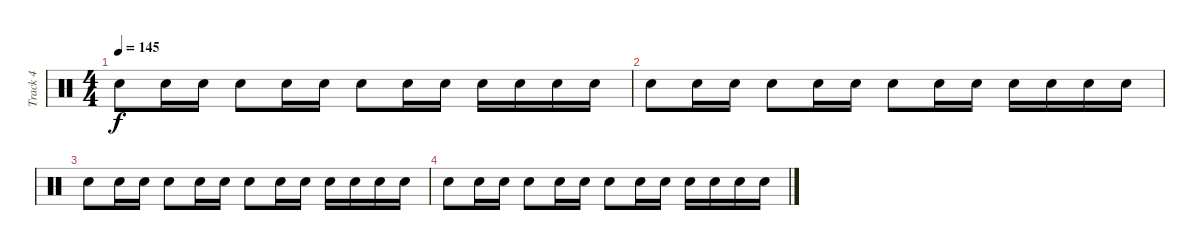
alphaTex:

\track ("Track 4" "Track 4") {instrument percussion}
\staff {score}
\articulation defaults
\ts (4 4)
\tempo 145
\clef neutral
\ks c "Snare (hit) 2".8{dy f} "Snare (hit) 2".16 "Snare (hit) 2".16 "Snare (hit) 2".8 "Snare (hit) 2".16 "Snare (hit) 2".16 "Snare (hit) 2".8 "Snare (hit) 2".16 "Snare (hit) 2".16 "Snare (hit) 2".16 "Snare (hit) 2".16 "Snare (hit) 2".16 "Snare (hit) 2".16
|
"Snare (hit) 2".8 "Snare (hit) 2".16 "Snare (hit) 2".16 "Snare (hit) 2".8 "Snare (hit) 2".16 "Snare (hit) 2".16 "Snare (hit) 2".8 "Snare (hit) 2".16 "Snare (hit) 2".16 "Snare (hit) 2".16 "Snare (hit) 2".16 "Snare (hit) 2".16 "Snare (hit) 2".16 |
"Snare (hit) 2".8 "Snare (hit) 2".16 "Snare (hit) 2".16 "Snare (hit) 2".8 "Snare (hit) 2".16 "Snare (hit) 2".16 "Snare (hit) 2".8 "Snare (hit) 2".16 "Snare (hit) 2".16 "Snare (hit) 2".16 "Snare (hit) 2".16 "Snare (hit) 2".16 "Snare (hit) 2".16 |
"Snare (hit) 2".8 "Snare (hit) 2".16 "Snare (hit) 2".16 "Snare (hit) 2".8 "Snare (hit) 2".16 "Snare (hit) 2".16 "Snare (hit) 2".8 "Snare (hit) 2".16 "Snare (hit) 2".16 "Snare (hit) 2".16 "Snare (hit) 2".16 "Snare (hit) 2".16 "Snare (hit) 2".16
